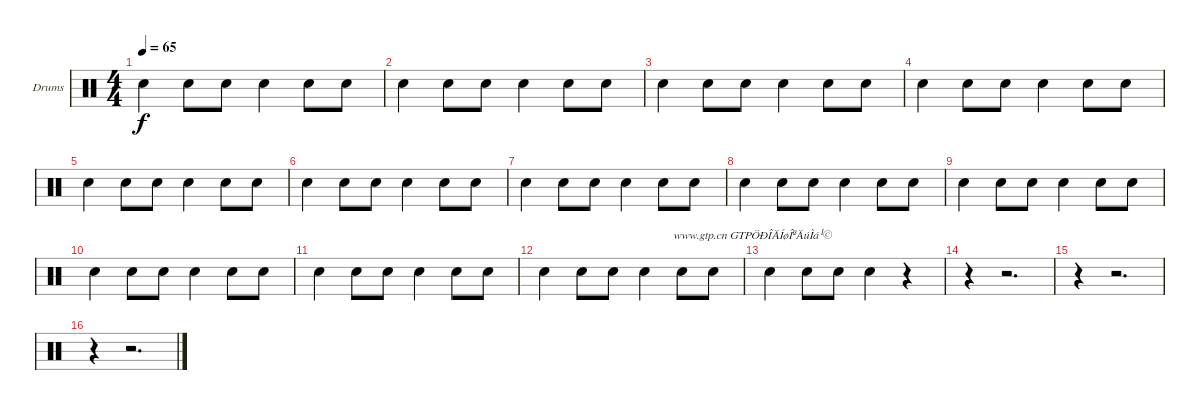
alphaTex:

\bracketExtendMode groupsimilarinstruments
\firstSystemTrackNameOrientation horizontal
\otherSystemsTrackNameOrientation horizontal
\track ("Drumkit" "Drums") {instrument percussion}
\staff {score}
\articulation defaults
\ts (4 4)
\tempo 65
\clef neutral
\ks c "Snare (hit) 2".4{dy f} "Snare (hit) 2".8 "Snare (hit) 2".8 "Snare (hit) 2".4 "Snare (hit) 2".8 "Snare (hit) 2".8
|
"Snare (hit) 2".4 "Snare (hit) 2".8 "Snare (hit) 2".8 "Snare (hit) 2".4 "Snare (hit) 2".8 "Snare (hit) 2".8 |
"Snare (hit) 2".4 "Snare (hit) 2".8 "Snare (hit) 2".8 "Snare (hit) 2".4 "Snare (hit) 2".8 "Snare (hit) 2".8 |
"Snare (hit) 2".4 "Snare (hit) 2".8 "Snare (hit) 2".8 "Snare (hit) 2".4 "Snare (hit) 2".8 "Snare (hit) 2".8 |
"Snare (hit) 2".4 "Snare (hit) 2".8 "Snare (hit) 2".8 "Snare (hit) 2".4 "Snare (hit) 2".8 "Snare (hit) 2".8 |
"Snare (hit) 2".4 "Snare (hit) 2".8 "Snare (hit) 2".8 "Snare (hit) 2".4 "Snare (hit) 2".8 "Snare (hit) 2".8 |
"Snare (hit) 2".4 "Snare (hit) 2".8 "Snare (hit) 2".8 "Snare (hit) 2".4 "Snare (hit) 2".8 "Snare (hit) 2".8 |
"Snare (hit) 2".4 "Snare (hit) 2".8 "Snare (hit) 2".8 "Snare (hit) 2".4 "Snare (hit) 2".8 "Snare (hit) 2".8 |
"Snare (hit) 2".4 "Snare (hit) 2".8 "Snare (hit) 2".8 "Snare (hit) 2".4 "Snare (hit) 2".8 "Snare (hit) 2".8 |
"Snare (hit) 2".4 "Snare (hit) 2".8 "Snare (hit) 2".8 "Snare (hit) 2".4 "Snare (hit) 2".8 "Snare (hit) 2".8 |
"Snare (hit) 2".4 "Snare (hit) 2".8 "Snare (hit) 2".8 "Snare (hit) 2".4 "Snare (hit) 2".8 "Snare (hit) 2".8 |
"Snare (hit) 2".4 "Snare (hit) 2".8 "Snare (hit) 2".8{txt "                    www.gtp.cn GTPÖÐÎÄÍøÎªÄúÌá¹©"} "Snare (hit) 2".4 "Snare (hit) 2".8 "Snare (hit) 2".8 |
"Snare (hit) 2".4 "Snare (hit) 2".8 "Snare (hit) 2".8 "Snare (hit) 2".4 r.4 |
r.4 r.2{d} |
r.4 r.2{d} |
r.4 r.2{d}
